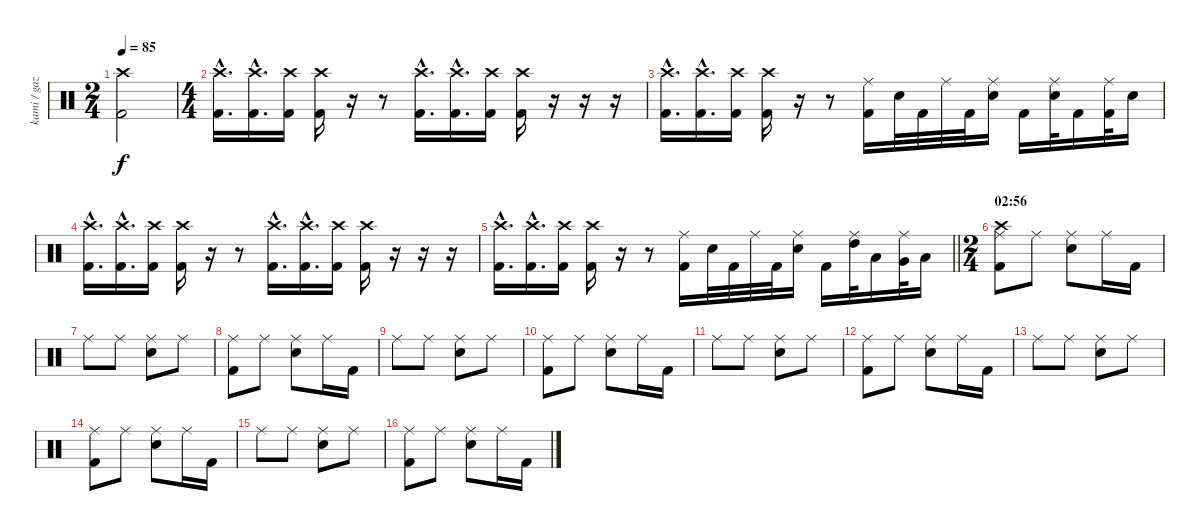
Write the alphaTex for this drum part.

\track ("kami / gaz (?)" "kami / gaz") {instrument percussion}
\staff {score}
\articulation defaults
\ts (2 4)
\tempo 85
\clef neutral
\ks c
("Kick (hit) 2" "Crash high (hit)").2{dy f} |
\ts (4 4)
("Kick (hit) 2"{hac} "Crash high (hit)"{hac}).16{d} ("Kick (hit) 2"{hac} "Crash high (hit)"{hac}).16{d} ("Kick (hit) 2" "Crash high (hit)").16 ("Kick (hit) 2" "Crash high (hit)").16 r.16 r.8 ("Kick (hit) 2"{hac} "Crash high (hit)"{hac}).16{d} ("Kick (hit) 2"{hac} "Crash high (hit)"{hac}).16{d} ("Kick (hit) 2" "Crash high (hit)").16 ("Kick (hit) 2" "Crash high (hit)").16 r.16 r.16 r.16 |
("Kick (hit) 2"{hac} "Crash high (hit)"{hac}).16{d} ("Kick (hit) 2"{hac} "Crash high (hit)"{hac}).16{d} ("Kick (hit) 2" "Crash high (hit)").16 ("Kick (hit) 2" "Crash high (hit)").16 r.16 r.8 ("Kick (hit) 2" "Ride (middle)").16 "Electric Snare (hit)".32 "Kick (hit) 2".32 "Ride (middle)".32 "Kick (hit) 2".32 ("Electric Snare (hit)" "Ride (middle)").16 "Kick (hit) 2".16 ("Electric Snare (hit)" "Ride (middle)").32 "Kick (hit) 2".16 ("Kick (hit) 2" "Ride (middle)").32 "Electric Snare (hit)".16 |
("Kick (hit) 2"{hac} "Crash high (hit)"{hac}).16{d} ("Kick (hit) 2"{hac} "Crash high (hit)"{hac}).16{d} ("Kick (hit) 2" "Crash high (hit)").16 ("Kick (hit) 2" "Crash high (hit)").16 r.16 r.8 ("Kick (hit) 2"{hac} "Crash high (hit)"{hac}).16{d} ("Kick (hit) 2"{hac} "Crash high (hit)"{hac}).16{d} ("Kick (hit) 2" "Crash high (hit)").16 ("Kick (hit) 2" "Crash high (hit)").16 r.16 r.16 r.16 |
\barLineRight lightlight
("Kick (hit) 2"{hac} "Crash high (hit)"{hac}).16{d} ("Kick (hit) 2"{hac} "Crash high (hit)"{hac}).16{d} ("Kick (hit) 2" "Crash high (hit)").16 ("Kick (hit) 2" "Crash high (hit)").16 r.16 r.8 ("Kick (hit) 2" "Ride (middle)").16 "Electric Snare (hit)".32 "Kick (hit) 2".32 "Ride (middle)".32 "Kick (hit) 2".32 ("Electric Snare (hit)" "Ride (middle)").16 "Kick (hit) 2".16 ("High Tom (hit)" "Ride (middle)").32 "Low Tom (hit)".16 ("Very Low Tom (hit)" "Ride (middle)").32 "Low Floor Tom (hit)".16 |
\ts (2 4)
\section ("" "02:56")
("Kick (hit) 2" "Ride (middle)" "Crash high (hit)").8 "Ride (middle)".8 ("Electric Snare (hit)" "Ride (middle)").8 "Ride (middle)".16 "Kick (hit) 2".16 |
"Ride (middle)".8 "Ride (middle)".8 ("Electric Snare (hit)" "Ride (middle)").8 "Ride (middle)".8 |
("Kick (hit) 2" "Ride (middle)").8 "Ride (middle)".8 ("Electric Snare (hit)" "Ride (middle)").8 "Ride (middle)".16 "Kick (hit) 2".16 |
"Ride (middle)".8 "Ride (middle)".8 ("Electric Snare (hit)" "Ride (middle)").8 "Ride (middle)".8 |
("Kick (hit) 2" "Ride (middle)").8 "Ride (middle)".8 ("Electric Snare (hit)" "Ride (middle)").8 "Ride (middle)".16 "Kick (hit) 2".16 |
"Ride (middle)".8 "Ride (middle)".8 ("Electric Snare (hit)" "Ride (middle)").8 "Ride (middle)".8 |
("Kick (hit) 2" "Ride (middle)").8 "Ride (middle)".8 ("Electric Snare (hit)" "Ride (middle)").8 "Ride (middle)".16 "Kick (hit) 2".16 |
"Ride (middle)".8 "Ride (middle)".8 ("Electric Snare (hit)" "Ride (middle)").8 "Ride (middle)".8 |
("Kick (hit) 2" "Ride (middle)").8 "Ride (middle)".8 ("Electric Snare (hit)" "Ride (middle)").8 "Ride (middle)".16 "Kick (hit) 2".16 |
"Ride (middle)".8 "Ride (middle)".8 ("Electric Snare (hit)" "Ride (middle)").8 "Ride (middle)".8 |
("Kick (hit) 2" "Ride (middle)").8 "Ride (middle)".8 ("Electric Snare (hit)" "Ride (middle)").8 "Ride (middle)".16 "Kick (hit) 2".16
